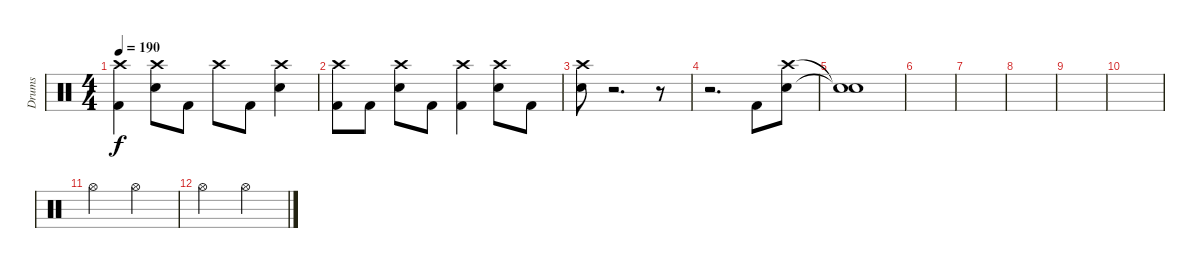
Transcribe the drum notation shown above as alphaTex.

\track ("Drums" "Drums") {instrument percussion}
\staff {score}
\articulation defaults
\ts (4 4)
\tempo 190
\clef neutral
\ks c
("Crash high (hit)" "Kick (hit) 2").4{dy f} ("Crash high (hit)" "Electric Snare (hit)").8 "Kick (hit) 2".8 "Crash high (hit)".8 "Kick (hit) 2".8 ("Crash high (hit)" "Electric Snare (hit)").4 |
("Crash high (hit)" "Kick (hit) 2").8 "Kick (hit) 2".8 ("Crash high (hit)" "Electric Snare (hit)").8 "Kick (hit) 2".8 ("Crash high (hit)" "Kick (hit) 2").4 ("Crash high (hit)" "Electric Snare (hit)").8 "Kick (hit) 2".8 |
("Crash high (hit)" "Electric Snare (hit)").8 r.2{d volume 0} r.8 |
r.2{d} "Kick (hit) 2".8{volume 16} ("Crash high (hit)" "Electric Snare (hit)").8 |
("Snare (hit)"{t} "Snare (hit)"{t}).1 |
|
|
|
|
|
"Hi-Hat (open)".2 "Hi-Hat (open)".2 |
"Hi-Hat (open)".2 "Hi-Hat (open)".2
